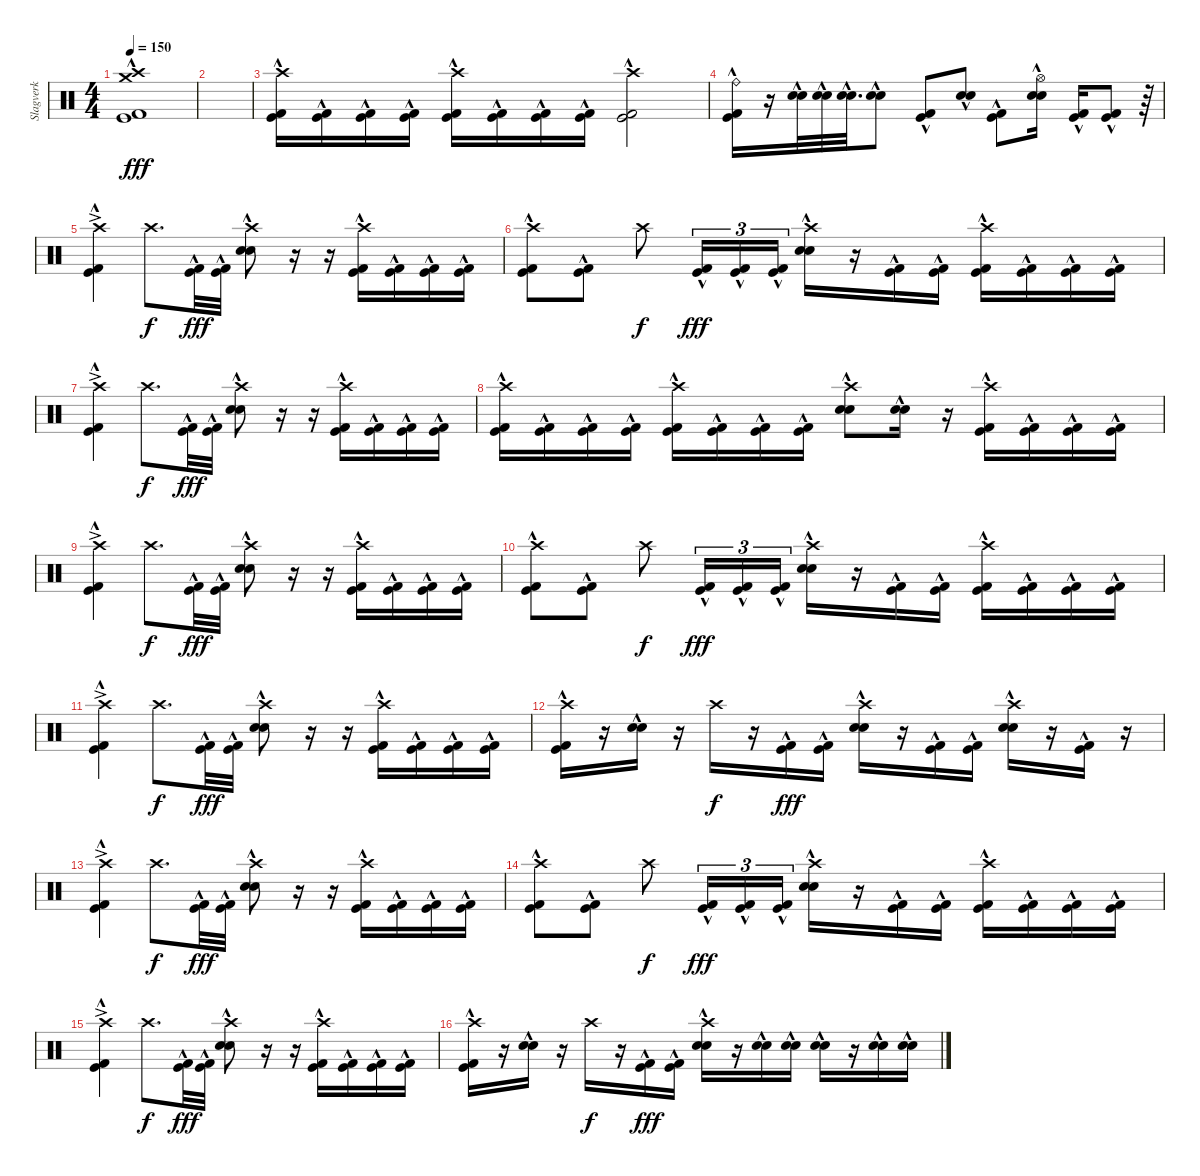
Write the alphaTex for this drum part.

\track ("Slagverk" "Slagverk") {instrument percussion}
\staff {score}
\articulation defaults
\ts (4 4)
\tempo 150
\clef neutral
\ks c
("Crash high (hit)" "Crash medium (hit)" "Kick (hit)"{hac} "Kick (hit) 2"{hac}).1{dy fff} |
|
("Crash high (hit)" "Kick (hit)"{hac} "Kick (hit) 2"{hac}).16 ("Kick (hit)"{hac} "Kick (hit) 2"{hac}).16 ("Kick (hit)"{hac} "Kick (hit) 2"{hac}).16 ("Kick (hit)"{hac} "Kick (hit) 2"{hac}).16 ("Crash high (hit)" "Kick (hit)"{hac} "Kick (hit) 2"{hac}).16 ("Kick (hit)"{hac} "Kick (hit) 2"{hac}).16 ("Kick (hit)"{hac} "Kick (hit) 2"{hac}).16 ("Kick (hit)"{hac} "Kick (hit) 2"{hac}).16 ("Crash high (hit)" "Kick (hit)"{hac} "Kick (hit) 2"{hac}).2 |
("Ride (bell)" "Kick (hit)"{hac} "Kick (hit) 2"{hac}).16 r.16 ("Electric Snare (hit)"{hac} "Snare (hit) 2").32 ("Electric Snare (hit)"{hac} "Snare (hit) 2").32 ("Electric Snare (hit)"{hac} "Snare (hit) 2").32{d} ("Electric Snare (hit)"{hac} "Snare (hit) 2").8 ("Kick (hit)"{hac} "Kick (hit) 2"{hac}).8 ("Electric Snare (hit)"{hac} "Snare (hit) 2").8 ("Kick (hit)"{hac} "Kick (hit) 2"{hac}).8 ("Hi-Hat (open)" "Electric Snare (hit)"{hac} "Snare (hit) 2").16 ("Kick (hit)"{hac} "Kick (hit) 2"{hac}).16 ("Kick (hit)"{hac} "Kick (hit) 2"{hac}).8 r.64 |
("Crash high (hit)"{ac} "Kick (hit)"{hac} "Kick (hit) 2"{hac}).4 "Crash high (hit)".8{d dy f} ("Kick (hit)"{hac} "Kick (hit) 2"{hac}).32{dy fff} ("Kick (hit)"{hac} "Kick (hit) 2"{hac}).32 ("Crash high (hit)" "Electric Snare (hit)"{hac} "Snare (hit) 2").8 r.16 r.16 ("Crash high (hit)" "Kick (hit)"{hac} "Kick (hit) 2"{hac}).16 ("Kick (hit)"{hac} "Kick (hit) 2"{hac}).16 ("Kick (hit)"{hac} "Kick (hit) 2"{hac}).16 ("Kick (hit)"{hac} "Kick (hit) 2"{hac}).16 |
("Crash high (hit)" "Kick (hit)"{hac} "Kick (hit) 2"{hac}).8 ("Kick (hit)"{hac} "Kick (hit) 2"{hac}).8 "Crash high (hit)".8{dy f} ("Kick (hit)"{hac} "Kick (hit) 2"{hac}).16{tu (3 2) dy fff} ("Kick (hit)"{hac} "Kick (hit) 2"{hac}).16{tu (3 2)} ("Kick (hit)"{hac} "Kick (hit) 2"{hac}).16{tu (3 2)} ("Crash high (hit)" "Electric Snare (hit)"{hac} "Snare (hit) 2").16 r.16 ("Kick (hit)"{hac} "Kick (hit) 2"{hac}).16 ("Kick (hit)"{hac} "Kick (hit) 2"{hac}).16 ("Crash high (hit)" "Kick (hit)"{hac} "Kick (hit) 2"{hac}).16 ("Kick (hit)"{hac} "Kick (hit) 2"{hac}).16 ("Kick (hit)"{hac} "Kick (hit) 2"{hac}).16 ("Kick (hit)"{hac} "Kick (hit) 2"{hac}).16 |
("Crash high (hit)"{ac} "Kick (hit)"{hac} "Kick (hit) 2"{hac}).4 "Crash high (hit)".8{d dy f} ("Kick (hit)"{hac} "Kick (hit) 2"{hac}).32{dy fff} ("Kick (hit)"{hac} "Kick (hit) 2"{hac}).32 ("Crash high (hit)" "Electric Snare (hit)"{hac} "Snare (hit) 2").8 r.16 r.16 ("Crash high (hit)" "Kick (hit)"{hac} "Kick (hit) 2"{hac}).16 ("Kick (hit)"{hac} "Kick (hit) 2"{hac}).16 ("Kick (hit)"{hac} "Kick (hit) 2"{hac}).16 ("Kick (hit)"{hac} "Kick (hit) 2"{hac}).16 |
("Crash high (hit)" "Kick (hit)"{hac} "Kick (hit) 2"{hac}).16 ("Kick (hit)"{hac} "Kick (hit) 2"{hac}).16 ("Kick (hit)"{hac} "Kick (hit) 2"{hac}).16 ("Kick (hit)"{hac} "Kick (hit) 2"{hac}).16 ("Crash high (hit)" "Kick (hit)"{hac} "Kick (hit) 2"{hac}).16 ("Kick (hit)"{hac} "Kick (hit) 2"{hac}).16 ("Kick (hit)"{hac} "Kick (hit) 2"{hac}).16 ("Kick (hit)"{hac} "Kick (hit) 2"{hac}).16 ("Crash high (hit)" "Electric Snare (hit)"{hac} "Snare (hit) 2").8 ("Electric Snare (hit)"{hac} "Snare (hit) 2").16 r.16 ("Crash high (hit)" "Kick (hit)"{hac} "Kick (hit) 2"{hac}).16 ("Kick (hit)"{hac} "Kick (hit) 2"{hac}).16 ("Kick (hit)"{hac} "Kick (hit) 2"{hac}).16 ("Kick (hit)"{hac} "Kick (hit) 2"{hac}).16 |
("Crash high (hit)"{ac} "Kick (hit)"{hac} "Kick (hit) 2"{hac}).4 "Crash high (hit)".8{d dy f} ("Kick (hit)"{hac} "Kick (hit) 2"{hac}).32{dy fff} ("Kick (hit)"{hac} "Kick (hit) 2"{hac}).32 ("Crash high (hit)" "Electric Snare (hit)"{hac} "Snare (hit) 2").8 r.16 r.16 ("Crash high (hit)" "Kick (hit)"{hac} "Kick (hit) 2"{hac}).16 ("Kick (hit)"{hac} "Kick (hit) 2"{hac}).16 ("Kick (hit)"{hac} "Kick (hit) 2"{hac}).16 ("Kick (hit)"{hac} "Kick (hit) 2"{hac}).16 |
("Crash high (hit)" "Kick (hit)"{hac} "Kick (hit) 2"{hac}).8 ("Kick (hit)"{hac} "Kick (hit) 2"{hac}).8 "Crash high (hit)".8{dy f} ("Kick (hit)"{hac} "Kick (hit) 2"{hac}).16{tu (3 2) dy fff} ("Kick (hit)"{hac} "Kick (hit) 2"{hac}).16{tu (3 2)} ("Kick (hit)"{hac} "Kick (hit) 2"{hac}).16{tu (3 2)} ("Crash high (hit)" "Electric Snare (hit)"{hac} "Snare (hit) 2").16 r.16 ("Kick (hit)"{hac} "Kick (hit) 2"{hac}).16 ("Kick (hit)"{hac} "Kick (hit) 2"{hac}).16 ("Crash high (hit)" "Kick (hit)"{hac} "Kick (hit) 2"{hac}).16 ("Kick (hit)"{hac} "Kick (hit) 2"{hac}).16 ("Kick (hit)"{hac} "Kick (hit) 2"{hac}).16 ("Kick (hit)"{hac} "Kick (hit) 2"{hac}).16 |
("Crash high (hit)"{ac} "Kick (hit)"{hac} "Kick (hit) 2"{hac}).4 "Crash high (hit)".8{d dy f} ("Kick (hit)"{hac} "Kick (hit) 2"{hac}).32{dy fff} ("Kick (hit)"{hac} "Kick (hit) 2"{hac}).32 ("Crash high (hit)" "Electric Snare (hit)"{hac} "Snare (hit) 2").8 r.16 r.16 ("Crash high (hit)" "Kick (hit)"{hac} "Kick (hit) 2"{hac}).16 ("Kick (hit)"{hac} "Kick (hit) 2"{hac}).16 ("Kick (hit)"{hac} "Kick (hit) 2"{hac}).16 ("Kick (hit)"{hac} "Kick (hit) 2"{hac}).16 |
("Crash high (hit)" "Kick (hit)"{hac} "Kick (hit) 2"{hac}).16 r.16 ("Electric Snare (hit)"{hac} "Snare (hit) 2"{hac}).16 r.16 "Crash high (hit)".16{dy f} r.16 ("Kick (hit)"{hac} "Kick (hit) 2"{hac}).16{dy fff} ("Kick (hit)"{hac} "Kick (hit) 2"{hac}).16 ("Crash high (hit)" "Electric Snare (hit)"{hac} "Snare (hit) 2").16 r.16 ("Kick (hit)"{hac} "Kick (hit) 2"{hac}).16 ("Kick (hit)"{hac} "Kick (hit) 2"{hac}).16 ("Crash high (hit)" "Electric Snare (hit)"{hac} "Snare (hit) 2").16 r.16 ("Kick (hit)"{hac} "Kick (hit) 2"{hac}).16 r.16 |
("Crash high (hit)"{ac} "Kick (hit)"{hac} "Kick (hit) 2"{hac}).4 "Crash high (hit)".8{d dy f} ("Kick (hit)"{hac} "Kick (hit) 2"{hac}).32{dy fff} ("Kick (hit)"{hac} "Kick (hit) 2"{hac}).32 ("Crash high (hit)" "Electric Snare (hit)"{hac} "Snare (hit) 2").8 r.16 r.16 ("Crash high (hit)" "Kick (hit)"{hac} "Kick (hit) 2"{hac}).16 ("Kick (hit)"{hac} "Kick (hit) 2"{hac}).16 ("Kick (hit)"{hac} "Kick (hit) 2"{hac}).16 ("Kick (hit)"{hac} "Kick (hit) 2"{hac}).16 |
("Crash high (hit)" "Kick (hit)"{hac} "Kick (hit) 2"{hac}).8 ("Kick (hit)"{hac} "Kick (hit) 2"{hac}).8 "Crash high (hit)".8{dy f} ("Kick (hit)"{hac} "Kick (hit) 2"{hac}).16{tu (3 2) dy fff} ("Kick (hit)"{hac} "Kick (hit) 2"{hac}).16{tu (3 2)} ("Kick (hit)"{hac} "Kick (hit) 2"{hac}).16{tu (3 2)} ("Crash high (hit)" "Electric Snare (hit)"{hac} "Snare (hit) 2").16 r.16 ("Kick (hit)"{hac} "Kick (hit) 2"{hac}).16 ("Kick (hit)"{hac} "Kick (hit) 2"{hac}).16 ("Crash high (hit)" "Kick (hit)"{hac} "Kick (hit) 2"{hac}).16 ("Kick (hit)"{hac} "Kick (hit) 2"{hac}).16 ("Kick (hit)"{hac} "Kick (hit) 2"{hac}).16 ("Kick (hit)"{hac} "Kick (hit) 2"{hac}).16 |
("Crash high (hit)"{ac} "Kick (hit)"{hac} "Kick (hit) 2"{hac}).4 "Crash high (hit)".8{d dy f} ("Kick (hit)"{hac} "Kick (hit) 2"{hac}).32{dy fff} ("Kick (hit)"{hac} "Kick (hit) 2"{hac}).32 ("Crash high (hit)" "Electric Snare (hit)"{hac} "Snare (hit) 2").8 r.16 r.16 ("Crash high (hit)" "Kick (hit)"{hac} "Kick (hit) 2"{hac}).16 ("Kick (hit)"{hac} "Kick (hit) 2"{hac}).16 ("Kick (hit)"{hac} "Kick (hit) 2"{hac}).16 ("Kick (hit)"{hac} "Kick (hit) 2"{hac}).16 |
("Crash high (hit)" "Kick (hit)"{hac} "Kick (hit) 2"{hac}).16 r.16 ("Electric Snare (hit)"{hac} "Snare (hit) 2"{hac}).16 r.16 "Crash high (hit)".16{dy f} r.16 ("Kick (hit)"{hac} "Kick (hit) 2"{hac}).16{dy fff} ("Kick (hit)"{hac} "Kick (hit) 2"{hac}).16 ("Crash high (hit)" "Electric Snare (hit)"{hac} "Snare (hit) 2").16 r.16 ("Electric Snare (hit)"{hac} "Snare (hit) 2").16 ("Electric Snare (hit)"{hac} "Snare (hit) 2").16 ("Electric Snare (hit)"{hac} "Snare (hit) 2").16 r.16 ("Electric Snare (hit)"{hac} "Snare (hit) 2").16 ("Electric Snare (hit)"{hac} "Snare (hit) 2").16
